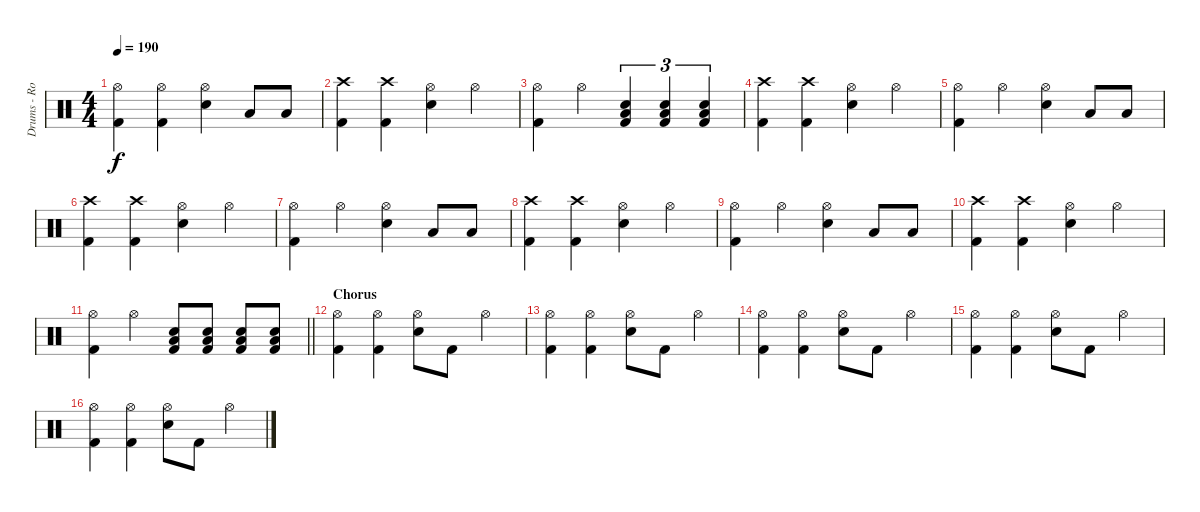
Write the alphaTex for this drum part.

\track ("Drums - Rob Bourdon" "Drums - Ro") {instrument percussion}
\staff {score}
\articulation defaults
\ts (4 4)
\tempo 190
\clef neutral
\ks c
("Hi-Hat (open)" "Kick (hit) 2").4{dy f} ("Hi-Hat (open)" "Kick (hit) 2").4 ("Hi-Hat (open)" "Snare (hit) 2").4 "Low Tom (hit)".8 "Low Tom (hit)".8 |
("Crash high (hit)" "Kick (hit) 2").4 ("Crash high (hit)" "Kick (hit) 2").4 ("Hi-Hat (open)" "Snare (hit) 2").4 "Hi-Hat (open)".4 |
("Hi-Hat (open)" "Kick (hit) 2").4 "Hi-Hat (open)".4 ("Snare (hit) 2" "Low Tom (hit)" "Kick (hit) 2").4{tu (3 2)} ("Snare (hit) 2" "Low Tom (hit)" "Kick (hit) 2").4{tu (3 2)} ("Snare (hit) 2" "Low Tom (hit)" "Kick (hit) 2").4{tu (3 2)} |
("Crash high (hit)" "Kick (hit) 2").4 ("Crash high (hit)" "Kick (hit) 2").4 ("Hi-Hat (open)" "Snare (hit) 2").4 "Hi-Hat (open)".4 |
("Hi-Hat (open)" "Kick (hit) 2").4 "Hi-Hat (open)".4 ("Hi-Hat (open)" "Snare (hit) 2").4 "Low Tom (hit)".8 "Low Tom (hit)".8 |
("Crash high (hit)" "Kick (hit) 2").4 ("Crash high (hit)" "Kick (hit) 2").4 ("Hi-Hat (open)" "Snare (hit) 2").4 "Hi-Hat (open)".4 |
("Hi-Hat (open)" "Kick (hit) 2").4 "Hi-Hat (open)".4 ("Hi-Hat (open)" "Snare (hit) 2").4 "Low Tom (hit)".8 "Low Tom (hit)".8 |
("Crash high (hit)" "Kick (hit) 2").4 ("Crash high (hit)" "Kick (hit) 2").4 ("Hi-Hat (open)" "Snare (hit) 2").4 "Hi-Hat (open)".4 |
("Hi-Hat (open)" "Kick (hit) 2").4 "Hi-Hat (open)".4 ("Hi-Hat (open)" "Snare (hit) 2").4 "Low Tom (hit)".8 "Low Tom (hit)".8 |
("Crash high (hit)" "Kick (hit) 2").4 ("Crash high (hit)" "Kick (hit) 2").4 ("Hi-Hat (open)" "Snare (hit) 2").4 "Hi-Hat (open)".4 |
\barLineRight lightlight
("Hi-Hat (open)" "Kick (hit) 2").4 "Hi-Hat (open)".4 ("Snare (hit) 2" "Low Tom (hit)" "Kick (hit) 2").8 ("Snare (hit) 2" "Low Tom (hit)" "Kick (hit) 2").8 ("Snare (hit) 2" "Low Tom (hit)" "Kick (hit) 2").8 ("Snare (hit) 2" "Low Tom (hit)" "Kick (hit) 2").8 |
\section ("" "Chorus")
("Hi-Hat (open)" "Kick (hit) 2").4 ("Hi-Hat (open)" "Kick (hit) 2").4 ("Hi-Hat (open)" "Snare (hit) 2").8 "Kick (hit) 2".8 "Hi-Hat (open)".4 |
("Hi-Hat (open)" "Kick (hit) 2").4 ("Hi-Hat (open)" "Kick (hit) 2").4 ("Hi-Hat (open)" "Snare (hit) 2").8 "Kick (hit) 2".8 "Hi-Hat (open)".4 |
("Hi-Hat (open)" "Kick (hit) 2").4 ("Hi-Hat (open)" "Kick (hit) 2").4 ("Hi-Hat (open)" "Snare (hit) 2").8 "Kick (hit) 2".8 "Hi-Hat (open)".4 |
("Hi-Hat (open)" "Kick (hit) 2").4 ("Hi-Hat (open)" "Kick (hit) 2").4 ("Hi-Hat (open)" "Snare (hit) 2").8 "Kick (hit) 2".8 "Hi-Hat (open)".4 |
("Hi-Hat (open)" "Kick (hit) 2").4 ("Hi-Hat (open)" "Kick (hit) 2").4 ("Hi-Hat (open)" "Snare (hit) 2").8 "Kick (hit) 2".8 "Hi-Hat (open)".4
